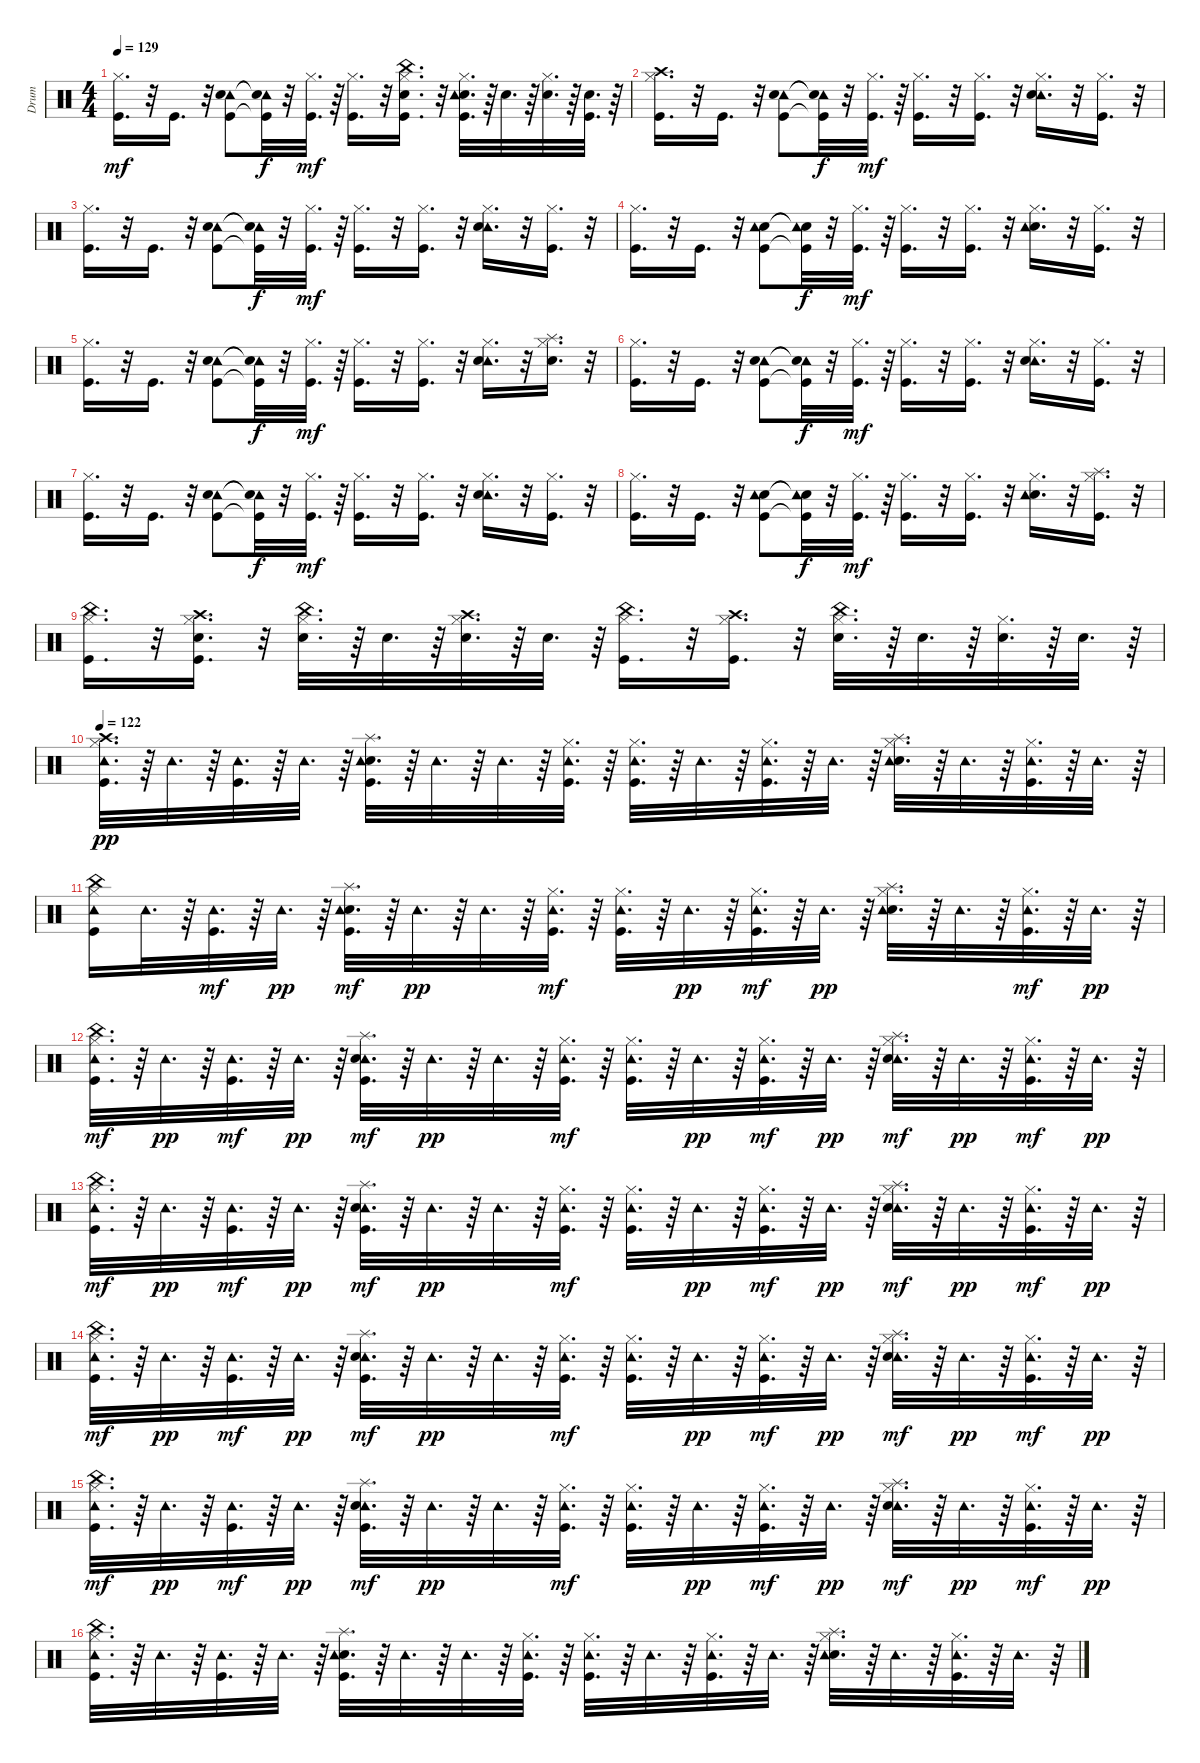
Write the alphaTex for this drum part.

\track ("Drum" "Drum") {instrument percussion}
\staff {score}
\articulation defaults
\ts (4 4)
\tempo 129
\clef neutral
\ks c
("Hi-Hat (closed)" "Kick (hit)").16{d dy mf} r.32 "Kick (hit)".16{d} r.32 ("Tambourine (hit)" "Kick (hit)" "Snare (hit) 2").8 ("Tambourine (hit)"{t} "Kick (hit)"{t} "Snare (hit) 2"{t}).32{dy f} r.32 ("Kick (hit)" "Hi-Hat (closed)").32{d dy mf} r.64 ("Kick (hit)" "Hi-Hat (closed)").16{d} r.32 ("China (hit)" "Snare (hit) 2" "Kick (hit)" "Hi-Hat (closed)").16{d} r.32 ("Snare (hit) 2" "Kick (hit)" "Tambourine (hit)" "Hi-Hat (closed)").32{d} r.64 "Snare (hit) 2".32{d} r.64 ("Snare (hit) 2" "Hi-Hat (closed)").32{d} r.64 ("Snare (hit) 2" "Kick (hit)").32{d} r.64 |
("Crash high (hit)" "Hi-Hat (closed)" "Kick (hit)").16{d} r.32 "Kick (hit)".16{d} r.32 ("Tambourine (hit)" "Kick (hit)" "Snare (hit) 2").8 ("Tambourine (hit)"{t} "Kick (hit)"{t} "Snare (hit) 2"{t}).32{dy f} r.32 ("Kick (hit)" "Hi-Hat (closed)").32{d dy mf} r.64 ("Kick (hit)" "Hi-Hat (closed)").16{d} r.32 ("Kick (hit)" "Hi-Hat (closed)").16{d} r.32 ("Tambourine (hit)" "Snare (hit) 2" "Hi-Hat (closed)").16{d} r.32 ("Kick (hit)" "Hi-Hat (closed)").16{d} r.32 |
("Hi-Hat (closed)" "Kick (hit)").16{d} r.32 "Kick (hit)".16{d} r.32 ("Tambourine (hit)" "Kick (hit)" "Snare (hit) 2").8 ("Tambourine (hit)"{t} "Kick (hit)"{t} "Snare (hit) 2"{t}).32{dy f} r.32 ("Kick (hit)" "Hi-Hat (closed)").32{d dy mf} r.64 ("Kick (hit)" "Hi-Hat (closed)").16{d} r.32 ("Kick (hit)" "Hi-Hat (closed)").16{d} r.32 ("Tambourine (hit)" "Snare (hit) 2" "Hi-Hat (closed)").16{d} r.32 ("Kick (hit)" "Hi-Hat (closed)").16{d} r.32 |
("Kick (hit)" "Hi-Hat (closed)").16{d} r.32 "Kick (hit)".16{d} r.32 ("Snare (hit) 2" "Kick (hit)" "Tambourine (hit)").8 ("Snare (hit) 2"{t} "Kick (hit)"{t} "Tambourine (hit)"{t}).32{dy f} r.32 ("Hi-Hat (closed)" "Kick (hit)").32{d dy mf} r.64 ("Hi-Hat (closed)" "Kick (hit)").16{d} r.32 ("Hi-Hat (closed)" "Kick (hit)").16{d} r.32 ("Hi-Hat (closed)" "Snare (hit) 2" "Tambourine (hit)").16{d} r.32 ("Hi-Hat (closed)" "Kick (hit)").16{d} r.32 |
("Hi-Hat (closed)" "Kick (hit)").16{d} r.32 "Kick (hit)".16{d} r.32 ("Tambourine (hit)" "Kick (hit)" "Snare (hit) 2").8 ("Tambourine (hit)"{t} "Kick (hit)"{t} "Snare (hit) 2"{t}).32{dy f} r.32 ("Kick (hit)" "Hi-Hat (closed)").32{d dy mf} r.64 ("Kick (hit)" "Hi-Hat (closed)").16{d} r.32 ("Kick (hit)" "Hi-Hat (closed)").16{d} r.32 ("Tambourine (hit)" "Snare (hit) 2" "Hi-Hat (closed)").16{d} r.32 ("Splash (hit)" "Hi-Hat (closed)" "Snare (hit) 2").16{d} r.32 |
("Hi-Hat (closed)" "Kick (hit)").16{d} r.32 "Kick (hit)".16{d} r.32 ("Tambourine (hit)" "Kick (hit)" "Snare (hit) 2").8 ("Tambourine (hit)"{t} "Kick (hit)"{t} "Snare (hit) 2"{t}).32{dy f} r.32 ("Kick (hit)" "Hi-Hat (closed)").32{d dy mf} r.64 ("Kick (hit)" "Hi-Hat (closed)").16{d} r.32 ("Kick (hit)" "Hi-Hat (closed)").16{d} r.32 ("Tambourine (hit)" "Snare (hit) 2" "Hi-Hat (closed)").16{d} r.32 ("Kick (hit)" "Hi-Hat (closed)").16{d} r.32 |
("Hi-Hat (closed)" "Kick (hit)").16{d} r.32 "Kick (hit)".16{d} r.32 ("Tambourine (hit)" "Kick (hit)" "Snare (hit) 2").8 ("Tambourine (hit)"{t} "Kick (hit)"{t} "Snare (hit) 2"{t}).32{dy f} r.32 ("Kick (hit)" "Hi-Hat (closed)").32{d dy mf} r.64 ("Kick (hit)" "Hi-Hat (closed)").16{d} r.32 ("Kick (hit)" "Hi-Hat (closed)").16{d} r.32 ("Tambourine (hit)" "Snare (hit) 2" "Hi-Hat (closed)").16{d} r.32 ("Kick (hit)" "Hi-Hat (closed)").16{d} r.32 |
("Kick (hit)" "Hi-Hat (closed)").16{d} r.32 "Kick (hit)".16{d} r.32 ("Snare (hit) 2" "Kick (hit)" "Tambourine (hit)").8 ("Snare (hit) 2"{t} "Kick (hit)"{t} "Tambourine (hit)"{t}).32{dy f} r.32 ("Hi-Hat (closed)" "Kick (hit)").32{d dy mf} r.64 ("Hi-Hat (closed)" "Kick (hit)").16{d} r.32 ("Hi-Hat (closed)" "Kick (hit)").16{d} r.32 ("Hi-Hat (closed)" "Snare (hit) 2" "Tambourine (hit)").16{d} r.32 ("Splash (hit)" "Hi-Hat (closed)" "Kick (hit)").16{d} r.32 |
("China (hit)" "Hi-Hat (closed)" "Kick (hit)").16{d} r.32 ("Crash high (hit)" "Snare (hit) 2" "Kick (hit)" "Hi-Hat (closed)").16{d} r.32 ("China (hit)" "Hi-Hat (closed)" "Snare (hit) 2").32{d} r.64 "Snare (hit) 2".32{d} r.64 ("Crash high (hit)" "Hi-Hat (closed)" "Snare (hit) 2").32{d} r.64 "Snare (hit) 2".32{d} r.64 ("China (hit)" "Kick (hit)" "Hi-Hat (closed)").16{d} r.32 ("Crash high (hit)" "Kick (hit)" "Hi-Hat (closed)").16{d} r.32 ("China (hit)" "Hi-Hat (closed)" "Snare (hit) 2").32{d} r.64 "Snare (hit) 2".32{d} r.64 ("Hi-Hat (closed)" "Snare (hit) 2").32{d} r.64 "Snare (hit) 2".32{d} r.64 |
\tempo 122
("Crash high (hit)" "Kick (hit)" "Hi-Hat (closed)" "Tambourine (hit)").32{d dy pp} r.64 "Tambourine (hit)".32{d} r.64 ("Kick (hit)" "Tambourine (hit)").32{d} r.64 "Tambourine (hit)".32{d} r.64 ("Splash (hit)" "Snare (hit) 2" "Kick (hit)" "Tambourine (hit)").32{d} r.64 "Tambourine (hit)".32{d} r.64 "Tambourine (hit)".32{d} r.64 ("Kick (hit)" "Hi-Hat (closed)" "Tambourine (hit)").32{d} r.64 ("Kick (hit)" "Hi-Hat (closed)" "Tambourine (hit)").32{d} r.64 "Tambourine (hit)".32{d} r.64 ("Kick (hit)" "Hi-Hat (closed)" "Tambourine (hit)").32{d} r.64 "Tambourine (hit)".32{d} r.64 ("Splash (hit)" "Snare (hit) 2" "Hi-Hat (closed)" "Tambourine (hit)").32{d} r.64 "Tambourine (hit)".32{d} r.64 ("Kick (hit)" "Hi-Hat (closed)" "Tambourine (hit)").32{d} r.64 "Tambourine (hit)".32{d} r.64 |
("Kick (hit)" "China (hit)" "Hi-Hat (closed)" "Tambourine (hit)").16 "Tambourine (hit)".32{d} r.64 ("Tambourine (hit)" "Kick (hit)").32{d dy mf} r.64 "Tambourine (hit)".32{d dy pp} r.64 ("Splash (hit)" "Snare (hit) 2" "Tambourine (hit)" "Kick (hit)").32{d dy mf} r.64 "Tambourine (hit)".32{d dy pp} r.64 "Tambourine (hit)".32{d} r.64 ("Kick (hit)" "Tambourine (hit)" "Hi-Hat (closed)").32{d dy mf} r.64 ("Tambourine (hit)" "Hi-Hat (closed)" "Kick (hit)").32{d} r.64 "Tambourine (hit)".32{d dy pp} r.64 ("Tambourine (hit)" "Hi-Hat (closed)" "Kick (hit)").32{d dy mf} r.64 "Tambourine (hit)".32{d dy pp} r.64 ("Splash (hit)" "Snare (hit) 2" "Hi-Hat (closed)" "Tambourine (hit)").32{d} r.64 "Tambourine (hit)".32{d} r.64 ("Tambourine (hit)" "Hi-Hat (closed)" "Kick (hit)").32{d dy mf} r.64 "Tambourine (hit)".32{d dy pp} r.64 |
("China (hit)" "Tambourine (hit)" "Hi-Hat (closed)" "Kick (hit)").32{d dy mf} r.64 "Tambourine (hit)".32{d dy pp} r.64 ("Tambourine (hit)" "Kick (hit)").32{d dy mf} r.64 "Tambourine (hit)".32{d dy pp} r.64 ("Tambourine (hit)" "Kick (hit)" "Snare (hit) 2" "Splash (hit)").32{d dy mf} r.64 "Tambourine (hit)".32{d dy pp} r.64 "Tambourine (hit)".32{d} r.64 ("Tambourine (hit)" "Hi-Hat (closed)" "Kick (hit)").32{d dy mf} r.64 ("Tambourine (hit)" "Hi-Hat (closed)" "Kick (hit)").32{d} r.64 "Tambourine (hit)".32{d dy pp} r.64 ("Tambourine (hit)" "Hi-Hat (closed)" "Kick (hit)").32{d dy mf} r.64 "Tambourine (hit)".32{d dy pp} r.64 ("Tambourine (hit)" "Hi-Hat (closed)" "Snare (hit) 2" "Splash (hit)").32{d dy mf} r.64 "Tambourine (hit)".32{d dy pp} r.64 ("Tambourine (hit)" "Hi-Hat (closed)" "Kick (hit)").32{d dy mf} r.64 "Tambourine (hit)".32{d dy pp} r.64 |
("China (hit)" "Tambourine (hit)" "Hi-Hat (closed)" "Kick (hit)").32{d dy mf} r.64 "Tambourine (hit)".32{d dy pp} r.64 ("Tambourine (hit)" "Kick (hit)").32{d dy mf} r.64 "Tambourine (hit)".32{d dy pp} r.64 ("Tambourine (hit)" "Kick (hit)" "Snare (hit) 2" "Splash (hit)").32{d dy mf} r.64 "Tambourine (hit)".32{d dy pp} r.64 "Tambourine (hit)".32{d} r.64 ("Tambourine (hit)" "Hi-Hat (closed)" "Kick (hit)").32{d dy mf} r.64 ("Tambourine (hit)" "Hi-Hat (closed)" "Kick (hit)").32{d} r.64 "Tambourine (hit)".32{d dy pp} r.64 ("Tambourine (hit)" "Hi-Hat (closed)" "Kick (hit)").32{d dy mf} r.64 "Tambourine (hit)".32{d dy pp} r.64 ("Tambourine (hit)" "Hi-Hat (closed)" "Snare (hit) 2" "Splash (hit)").32{d dy mf} r.64 "Tambourine (hit)".32{d dy pp} r.64 ("Tambourine (hit)" "Hi-Hat (closed)" "Kick (hit)").32{d dy mf} r.64 "Tambourine (hit)".32{d dy pp} r.64 |
("China (hit)" "Tambourine (hit)" "Hi-Hat (closed)" "Kick (hit)").32{d dy mf} r.64 "Tambourine (hit)".32{d dy pp} r.64 ("Tambourine (hit)" "Kick (hit)").32{d dy mf} r.64 "Tambourine (hit)".32{d dy pp} r.64 ("Tambourine (hit)" "Kick (hit)" "Snare (hit) 2" "Splash (hit)").32{d dy mf} r.64 "Tambourine (hit)".32{d dy pp} r.64 "Tambourine (hit)".32{d} r.64 ("Tambourine (hit)" "Hi-Hat (closed)" "Kick (hit)").32{d dy mf} r.64 ("Tambourine (hit)" "Hi-Hat (closed)" "Kick (hit)").32{d} r.64 "Tambourine (hit)".32{d dy pp} r.64 ("Tambourine (hit)" "Hi-Hat (closed)" "Kick (hit)").32{d dy mf} r.64 "Tambourine (hit)".32{d dy pp} r.64 ("Tambourine (hit)" "Hi-Hat (closed)" "Snare (hit) 2" "Splash (hit)").32{d dy mf} r.64 "Tambourine (hit)".32{d dy pp} r.64 ("Tambourine (hit)" "Hi-Hat (closed)" "Kick (hit)").32{d dy mf} r.64 "Tambourine (hit)".32{d dy pp} r.64 |
("China (hit)" "Tambourine (hit)" "Hi-Hat (closed)" "Kick (hit)").32{d dy mf} r.64 "Tambourine (hit)".32{d dy pp} r.64 ("Tambourine (hit)" "Kick (hit)").32{d dy mf} r.64 "Tambourine (hit)".32{d dy pp} r.64 ("Tambourine (hit)" "Kick (hit)" "Snare (hit) 2" "Splash (hit)").32{d dy mf} r.64 "Tambourine (hit)".32{d dy pp} r.64 "Tambourine (hit)".32{d} r.64 ("Tambourine (hit)" "Hi-Hat (closed)" "Kick (hit)").32{d dy mf} r.64 ("Tambourine (hit)" "Hi-Hat (closed)" "Kick (hit)").32{d} r.64 "Tambourine (hit)".32{d dy pp} r.64 ("Tambourine (hit)" "Hi-Hat (closed)" "Kick (hit)").32{d dy mf} r.64 "Tambourine (hit)".32{d dy pp} r.64 ("Tambourine (hit)" "Hi-Hat (closed)" "Snare (hit) 2" "Splash (hit)").32{d dy mf} r.64 "Tambourine (hit)".32{d dy pp} r.64 ("Tambourine (hit)" "Hi-Hat (closed)" "Kick (hit)").32{d dy mf} r.64 "Tambourine (hit)".32{d dy pp} r.64 |
("China (hit)" "Kick (hit)" "Hi-Hat (closed)" "Tambourine (hit)").32{d} r.64 "Tambourine (hit)".32{d} r.64 ("Kick (hit)" "Tambourine (hit)").32{d} r.64 "Tambourine (hit)".32{d} r.64 ("Splash (hit)" "Snare (hit) 2" "Kick (hit)" "Tambourine (hit)").32{d} r.64 "Tambourine (hit)".32{d} r.64 "Tambourine (hit)".32{d} r.64 ("Kick (hit)" "Hi-Hat (closed)" "Tambourine (hit)").32{d} r.64 ("Kick (hit)" "Hi-Hat (closed)" "Tambourine (hit)").32{d} r.64 "Tambourine (hit)".32{d} r.64 ("Kick (hit)" "Hi-Hat (closed)" "Tambourine (hit)").32{d} r.64 "Tambourine (hit)".32{d} r.64 ("Splash (hit)" "Snare (hit) 2" "Hi-Hat (closed)" "Tambourine (hit)").32{d} r.64 "Tambourine (hit)".32{d} r.64 ("Kick (hit)" "Hi-Hat (closed)" "Tambourine (hit)").32{d} r.64 "Tambourine (hit)".32{d} r.64
